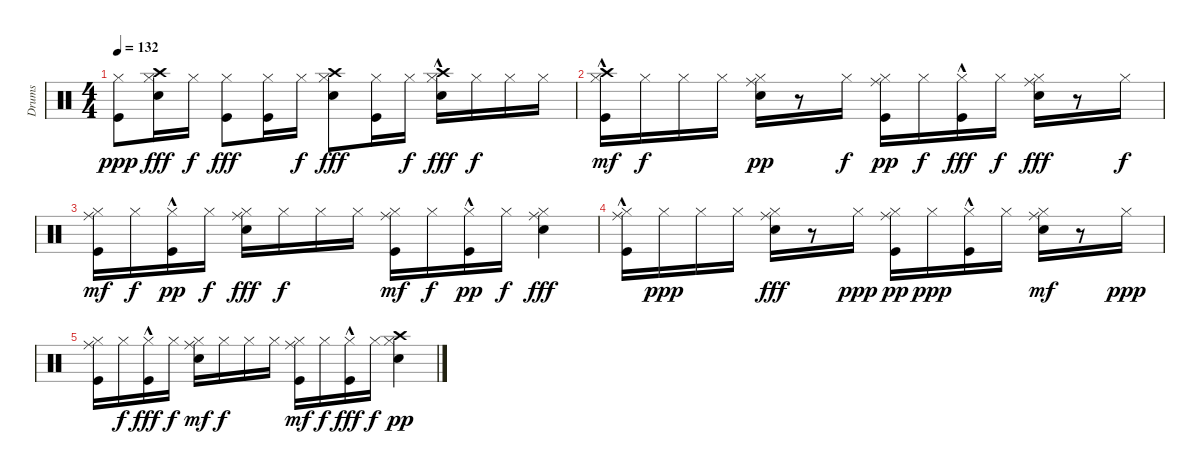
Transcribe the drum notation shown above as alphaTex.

\track ("Drums" "Drums") {instrument percussion}
\staff {score}
\articulation defaults
\ts (4 4)
\tempo 132
\clef neutral
\ks c
("Kick (hit)" "Hi-Hat (closed)").8{dy ppp} ("Crash high (hit)" "Hi-Hat (closed)" "Snare (hit) 2").16{dy fff} "Hi-Hat (closed)".16{dy f} ("Kick (hit)" "Hi-Hat (closed)").8{dy fff} ("Kick (hit)" "Hi-Hat (closed)").16 "Hi-Hat (closed)".16{dy f} ("Hi-Hat (closed)" "Crash high (hit)" "Snare (hit) 2").8{dy fff} ("Hi-Hat (closed)" "Kick (hit)").16 "Hi-Hat (closed)".16{dy f} ("Crash high (hit)" "Hi-Hat (closed)" "Snare (hit) 2"{hac}).16{dy fff} "Hi-Hat (closed)".16{dy f} "Hi-Hat (closed)".16 "Hi-Hat (closed)".16 |
("Hi-Hat (closed)" "Kick (hit)"{hac} "Crash high (hit)").16{dy mf} "Hi-Hat (closed)".16{dy f} "Hi-Hat (closed)".16 "Hi-Hat (closed)".16 ("Snare (hit) 2" "Ride (middle)" "Hi-Hat (closed)").16{dy pp} r.8 "Hi-Hat (closed)".16{dy f} ("Kick (hit)" "Ride (middle)" "Hi-Hat (closed)").16{dy pp} "Hi-Hat (closed)".16{dy f} ("Hi-Hat (closed)" "Kick (hit)"{hac}).16{dy fff} "Hi-Hat (closed)".16{dy f} ("Hi-Hat (closed)" "Ride (middle)" "Snare (hit) 2").16{dy fff} r.8 "Hi-Hat (closed)".16{dy f} |
("Kick (hit)" "Hi-Hat (closed)" "Ride (middle)").16{dy mf} "Hi-Hat (closed)".16{dy f} ("Kick (hit)"{hac} "Hi-Hat (closed)").16{dy pp} "Hi-Hat (closed)".16{dy f} ("Ride (middle)" "Hi-Hat (closed)" "Snare (hit) 2").16{dy fff} "Hi-Hat (closed)".16{dy f} "Hi-Hat (closed)".16 "Hi-Hat (closed)".16 ("Kick (hit)" "Hi-Hat (closed)" "Ride (middle)").16{dy mf} "Hi-Hat (closed)".16{dy f} ("Kick (hit)"{hac} "Hi-Hat (closed)").16{dy pp} "Hi-Hat (closed)".16{dy f} ("Ride (middle)" "Hi-Hat (closed)" "Snare (hit) 2").4{dy fff} |
("Hi-Hat (closed)" "Ride (middle)" "Kick (hit)"{hac}).16{volume 0} "Hi-Hat (closed)".16{dy ppp} "Hi-Hat (closed)".16 "Hi-Hat (closed)".16 ("Ride (middle)" "Hi-Hat (closed)" "Snare (hit) 2").16{dy fff} r.8 "Hi-Hat (closed)".16{dy ppp} ("Kick (hit)" "Ride (middle)" "Hi-Hat (closed)").16{dy pp} "Hi-Hat (closed)".16{dy ppp} ("Kick (hit)"{hac} "Hi-Hat (closed)").16 "Hi-Hat (closed)".16 ("Snare (hit) 2" "Hi-Hat (closed)" "Ride (middle)").16{dy mf} r.8 "Hi-Hat (closed)".16{dy ppp} |
("Kick (hit)" "Hi-Hat (closed)" "Ride (middle)").16 "Hi-Hat (closed)".16{dy f} ("Hi-Hat (closed)" "Kick (hit)"{hac}).16{dy fff} "Hi-Hat (closed)".16{dy f} ("Hi-Hat (closed)" "Snare (hit) 2" "Ride (middle)").16{dy mf} "Hi-Hat (closed)".16{dy f} "Hi-Hat (closed)".16 "Hi-Hat (closed)".16 ("Hi-Hat (closed)" "Kick (hit)" "Ride (middle)").16{dy mf} "Hi-Hat (closed)".16{dy f} ("Hi-Hat (closed)" "Kick (hit)"{hac}).16{dy fff} "Hi-Hat (closed)".16{dy f} ("Snare (hit) 2" "Crash high (hit)" "Hi-Hat (closed)").4{dy pp}
